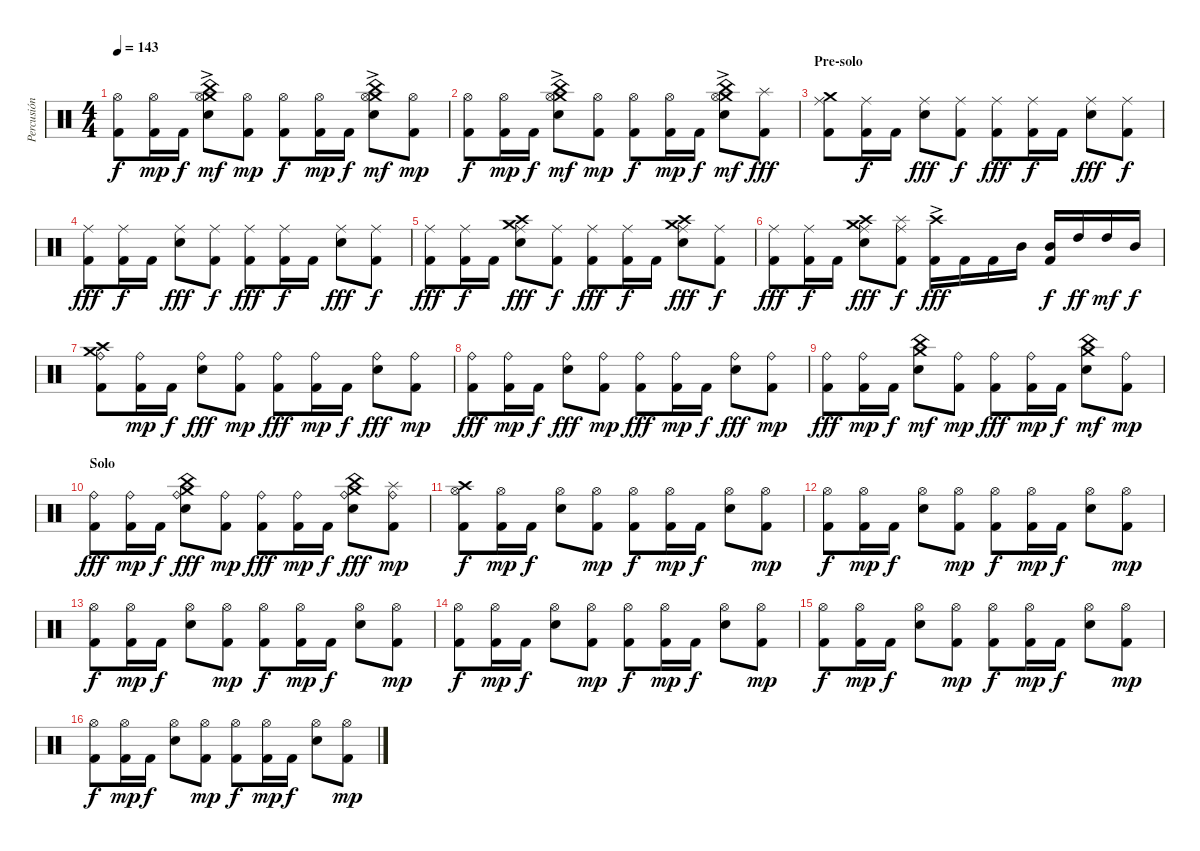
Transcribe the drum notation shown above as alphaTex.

\track ("Percusión" "Percusión") {instrument percussion}
\staff {score}
\articulation defaults
\ts (4 4)
\tempo 143
\clef neutral
\ks c
("Hi-Hat (open)" "Kick (hit) 2").8{dy f} ("Hi-Hat (open)" "Kick (hit) 2").16{dy mp} "Kick (hit) 2".16{dy f} ("Crash medium (hit)" "China (hit)"{ac} "Hi-Hat (open)" "Electric Snare (hit)").8{dy mf} ("Hi-Hat (open)" "Kick (hit) 2").8{dy mp} ("Hi-Hat (open)" "Kick (hit) 2").8{dy f} ("Hi-Hat (open)" "Kick (hit) 2").16{dy mp} "Kick (hit) 2".16{dy f} ("Crash medium (hit)" "China (hit)"{ac} "Hi-Hat (open)" "Electric Snare (hit)").8{dy mf} ("Hi-Hat (open)" "Kick (hit) 2").8{dy mp} |
("Hi-Hat (open)" "Kick (hit) 2").8{dy f} ("Hi-Hat (open)" "Kick (hit) 2").16{dy mp} "Kick (hit) 2".16{dy f} ("Crash medium (hit)" "China (hit)"{ac} "Hi-Hat (open)" "Electric Snare (hit)").8{dy mf} ("Hi-Hat (open)" "Kick (hit) 2").8{dy mp} ("Hi-Hat (open)" "Kick (hit) 2").8{dy f} ("Hi-Hat (open)" "Kick (hit) 2").16{dy mp} "Kick (hit) 2".16{dy f} ("Crash medium (hit)" "China (hit)"{ac} "Hi-Hat (open)" "Electric Snare (hit)").8{dy mf} ("Splash (hit)" "Kick (hit) 2").8{dy fff} |
\section ("" "Pre-solo")
("Crash medium (hit)" "Ride (middle)" "Kick (hit) 2").8 ("Ride (middle)" "Kick (hit) 2").16{dy f} "Kick (hit) 2".16 ("Ride (middle)" "Electric Snare (hit)").8{dy fff} ("Ride (middle)" "Kick (hit) 2").8{dy f} ("Ride (middle)" "Kick (hit) 2").8{dy fff} ("Ride (middle)" "Kick (hit) 2").16{dy f} "Kick (hit) 2".16 ("Ride (middle)" "Electric Snare (hit)").8{dy fff} ("Ride (middle)" "Kick (hit) 2").8{dy f} |
("Ride (middle)" "Kick (hit) 2").8{dy fff} ("Ride (middle)" "Kick (hit) 2").16{dy f} "Kick (hit) 2".16 ("Ride (middle)" "Electric Snare (hit)").8{dy fff} ("Ride (middle)" "Kick (hit) 2").8{dy f} ("Ride (middle)" "Kick (hit) 2").8{dy fff} ("Ride (middle)" "Kick (hit) 2").16{dy f} "Kick (hit) 2".16 ("Ride (middle)" "Electric Snare (hit)").8{dy fff} ("Ride (middle)" "Kick (hit) 2").8{dy f} |
("Ride (middle)" "Kick (hit) 2").8{dy fff} ("Ride (middle)" "Kick (hit) 2").16{dy f} "Kick (hit) 2".16 ("Crash medium (hit)" "Crash high (hit)" "Ride (middle)" "Electric Snare (hit)").8{dy fff} ("Ride (middle)" "Kick (hit) 2").8{dy f} ("Ride (middle)" "Kick (hit) 2").8{dy fff} ("Ride (middle)" "Kick (hit) 2").16{dy f} "Kick (hit) 2".16 ("Crash medium (hit)" "Crash high (hit)" "Ride (middle)" "Electric Snare (hit)").8{dy fff} ("Ride (middle)" "Kick (hit) 2").8{dy f} |
("Ride (middle)" "Kick (hit) 2").8{dy fff} ("Ride (middle)" "Kick (hit) 2").16{dy f} "Kick (hit) 2".16 ("Crash medium (hit)" "Crash high (hit)" "Ride (middle)" "Electric Snare (hit)").8{dy fff} ("Splash (hit)" "Ride (middle)" "Kick (hit) 2").8{dy f} ("Crash high (hit)"{ac} "Kick (hit) 2").16{dy fff} "Kick (hit) 2".16 "Kick (hit) 2".16 "Mid Tom (hit)".16 ("Mid Tom (hit)" "Kick (hit) 2").16{dy f} "High Tom (hit)".16{dy ff} "High Tom (hit)".16{dy mf} "Mid Tom (hit)".16{dy f} |
("Crash high (hit)" "Crash medium (hit)" "Ride (bell)" "Kick (hit) 2").8 ("Ride (bell)" "Kick (hit) 2").16{dy mp} "Kick (hit) 2".16{dy f} ("Ride (bell)" "Electric Snare (hit)").8{dy fff} ("Ride (bell)" "Kick (hit) 2").8{dy mp} ("Ride (bell)" "Kick (hit) 2").8{dy fff} ("Ride (bell)" "Kick (hit) 2").16{dy mp} "Kick (hit) 2".16{dy f} ("Ride (bell)" "Electric Snare (hit)").8{dy fff} ("Ride (bell)" "Kick (hit) 2").8{dy mp} |
("Ride (bell)" "Kick (hit) 2").8{dy fff} ("Ride (bell)" "Kick (hit) 2").16{dy mp} "Kick (hit) 2".16{dy f} ("Ride (bell)" "Electric Snare (hit)").8{dy fff} ("Ride (bell)" "Kick (hit) 2").8{dy mp} ("Ride (bell)" "Kick (hit) 2").8{dy fff} ("Ride (bell)" "Kick (hit) 2").16{dy mp} "Kick (hit) 2".16{dy f} ("Ride (bell)" "Electric Snare (hit)").8{dy fff} ("Ride (bell)" "Kick (hit) 2").8{dy mp} |
("Ride (bell)" "Kick (hit) 2").8{dy fff} ("Ride (bell)" "Kick (hit) 2").16{dy mp} "Kick (hit) 2".16{dy f} ("Crash medium (hit)" "China (hit)" "Electric Snare (hit)").8{dy mf} ("Ride (bell)" "Kick (hit) 2").8{dy mp} ("Ride (bell)" "Kick (hit) 2").8{dy fff} ("Ride (bell)" "Kick (hit) 2").16{dy mp} "Kick (hit) 2".16{dy f} ("China (hit)" "Crash medium (hit)" "Electric Snare (hit)").8{dy mf} ("Ride (bell)" "Kick (hit) 2").8{dy mp} |
\section ("" "Solo")
("Ride (bell)" "Kick (hit) 2").8{dy fff} ("Ride (bell)" "Kick (hit) 2").16{dy mp} "Kick (hit) 2".16{dy f} ("China (hit)" "Crash medium (hit)" "Ride (bell)" "Electric Snare (hit)").8{dy fff} ("Ride (bell)" "Kick (hit) 2").8{dy mp} ("Ride (bell)" "Kick (hit) 2").8{dy fff} ("Ride (bell)" "Kick (hit) 2").16{dy mp} "Kick (hit) 2".16{dy f} ("China (hit)" "Crash medium (hit)" "Ride (bell)" "Electric Snare (hit)").8{dy fff} ("Splash (hit)" "Ride (bell)" "Kick (hit) 2").8{dy mp} |
("Crash high (hit)" "Hi-Hat (open)" "Kick (hit) 2").8{dy f} ("Hi-Hat (open)" "Kick (hit) 2").16{dy mp} "Kick (hit) 2".16{dy f} ("Hi-Hat (open)" "Electric Snare (hit)").8 ("Hi-Hat (open)" "Kick (hit) 2").8{dy mp} ("Hi-Hat (open)" "Kick (hit) 2").8{dy f} ("Hi-Hat (open)" "Kick (hit) 2").16{dy mp} "Kick (hit) 2".16{dy f} ("Hi-Hat (open)" "Electric Snare (hit)").8 ("Hi-Hat (open)" "Kick (hit) 2").8{dy mp} |
("Hi-Hat (open)" "Kick (hit) 2").8{dy f} ("Hi-Hat (open)" "Kick (hit) 2").16{dy mp} "Kick (hit) 2".16{dy f} ("Hi-Hat (open)" "Electric Snare (hit)").8 ("Hi-Hat (open)" "Kick (hit) 2").8{dy mp} ("Hi-Hat (open)" "Kick (hit) 2").8{dy f} ("Hi-Hat (open)" "Kick (hit) 2").16{dy mp} "Kick (hit) 2".16{dy f} ("Hi-Hat (open)" "Electric Snare (hit)").8 ("Hi-Hat (open)" "Kick (hit) 2").8{dy mp} |
("Hi-Hat (open)" "Kick (hit) 2").8{dy f} ("Hi-Hat (open)" "Kick (hit) 2").16{dy mp} "Kick (hit) 2".16{dy f} ("Hi-Hat (open)" "Electric Snare (hit)").8 ("Hi-Hat (open)" "Kick (hit) 2").8{dy mp} ("Hi-Hat (open)" "Kick (hit) 2").8{dy f} ("Hi-Hat (open)" "Kick (hit) 2").16{dy mp} "Kick (hit) 2".16{dy f} ("Hi-Hat (open)" "Electric Snare (hit)").8 ("Hi-Hat (open)" "Kick (hit) 2").8{dy mp} |
("Hi-Hat (open)" "Kick (hit) 2").8{dy f} ("Hi-Hat (open)" "Kick (hit) 2").16{dy mp} "Kick (hit) 2".16{dy f} ("Hi-Hat (open)" "Electric Snare (hit)").8 ("Hi-Hat (open)" "Kick (hit) 2").8{dy mp} ("Hi-Hat (open)" "Kick (hit) 2").8{dy f} ("Hi-Hat (open)" "Kick (hit) 2").16{dy mp} "Kick (hit) 2".16{dy f} ("Hi-Hat (open)" "Electric Snare (hit)").8 ("Hi-Hat (open)" "Kick (hit) 2").8{dy mp} |
("Hi-Hat (open)" "Kick (hit) 2").8{dy f} ("Hi-Hat (open)" "Kick (hit) 2").16{dy mp} "Kick (hit) 2".16{dy f} ("Hi-Hat (open)" "Electric Snare (hit)").8 ("Hi-Hat (open)" "Kick (hit) 2").8{dy mp} ("Hi-Hat (open)" "Kick (hit) 2").8{dy f} ("Hi-Hat (open)" "Kick (hit) 2").16{dy mp} "Kick (hit) 2".16{dy f} ("Hi-Hat (open)" "Electric Snare (hit)").8 ("Hi-Hat (open)" "Kick (hit) 2").8{dy mp} |
("Hi-Hat (open)" "Kick (hit) 2").8{dy f} ("Hi-Hat (open)" "Kick (hit) 2").16{dy mp} "Kick (hit) 2".16{dy f} ("Hi-Hat (open)" "Electric Snare (hit)").8 ("Hi-Hat (open)" "Kick (hit) 2").8{dy mp} ("Hi-Hat (open)" "Kick (hit) 2").8{dy f} ("Hi-Hat (open)" "Kick (hit) 2").16{dy mp} "Kick (hit) 2".16{dy f} ("Hi-Hat (open)" "Electric Snare (hit)").8 ("Hi-Hat (open)" "Kick (hit) 2").8{dy mp}
